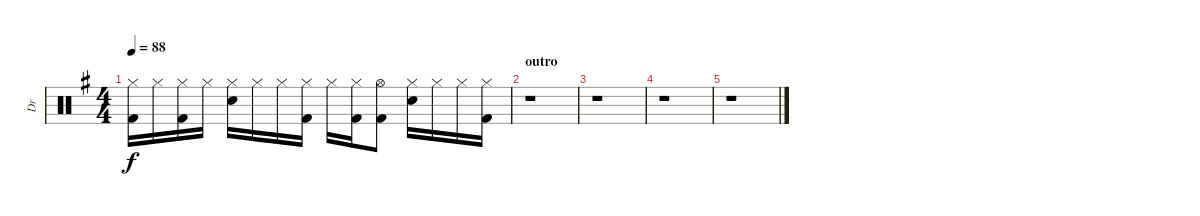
\track ("Dr" "Dr") {instrument percussion}
\staff {score}
\articulation defaults
\ts (4 4)
\tempo 88
\clef neutral
\ks g
("Hi-Hat (closed)" "Kick (hit) 2").16{dy f} "Hi-Hat (closed)".16 ("Hi-Hat (closed)" "Kick (hit) 2").16 "Hi-Hat (closed)".16 ("Hi-Hat (closed)" "Electric Snare (hit)").16 "Hi-Hat (closed)".16 "Hi-Hat (closed)".16 ("Hi-Hat (closed)" "Kick (hit) 2").16 "Hi-Hat (closed)".16 ("Hi-Hat (closed)" "Kick (hit) 2").16 ("Hi-Hat (open)" "Kick (hit) 2").8 ("Hi-Hat (closed)" "Electric Snare (hit)").16 "Hi-Hat (closed)".16 "Hi-Hat (closed)".16 ("Hi-Hat (closed)" "Kick (hit) 2").16 |
\section ("" "outro")
r.1 |
r.1 |
r.1 |
r.1
